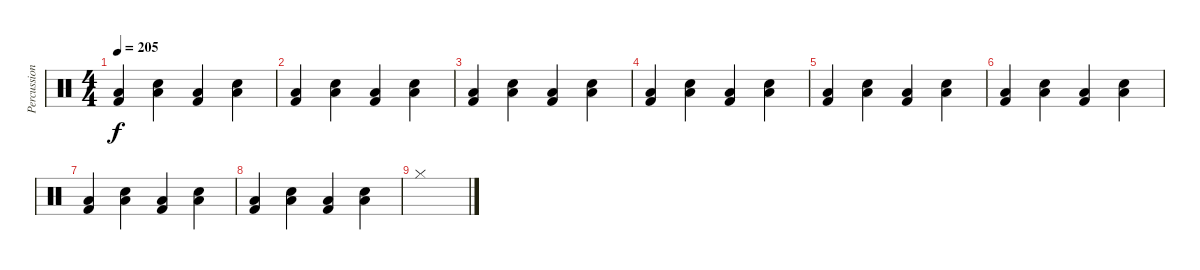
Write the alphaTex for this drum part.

\track ("Percussion" "Percussion") {instrument percussion}
\staff {score}
\articulation defaults
\ts (4 4)
\tempo 205
\clef neutral
\ks c
("Low Floor Tom (hit)" "Kick (hit) 2").4{dy f} ("Low Floor Tom (hit)" "Electric Snare (hit)").4 ("Low Floor Tom (hit)" "Kick (hit) 2").4 ("Low Floor Tom (hit)" "Electric Snare (hit)").4 |
("Low Floor Tom (hit)" "Kick (hit) 2").4 ("Low Floor Tom (hit)" "Electric Snare (hit)").4 ("Low Floor Tom (hit)" "Kick (hit) 2").4 ("Low Floor Tom (hit)" "Electric Snare (hit)").4 |
("Low Floor Tom (hit)" "Kick (hit) 2").4 ("Low Floor Tom (hit)" "Electric Snare (hit)").4 ("Low Floor Tom (hit)" "Kick (hit) 2").4 ("Low Floor Tom (hit)" "Electric Snare (hit)").4 |
("Low Floor Tom (hit)" "Kick (hit) 2").4 ("Low Floor Tom (hit)" "Electric Snare (hit)").4 ("Low Floor Tom (hit)" "Kick (hit) 2").4 ("Low Floor Tom (hit)" "Electric Snare (hit)").4 |
("Low Floor Tom (hit)" "Kick (hit) 2").4 ("Low Floor Tom (hit)" "Electric Snare (hit)").4 ("Low Floor Tom (hit)" "Kick (hit) 2").4 ("Low Floor Tom (hit)" "Electric Snare (hit)").4 |
("Low Floor Tom (hit)" "Kick (hit) 2").4 ("Low Floor Tom (hit)" "Electric Snare (hit)").4 ("Low Floor Tom (hit)" "Kick (hit) 2").4 ("Low Floor Tom (hit)" "Electric Snare (hit)").4 |
("Low Floor Tom (hit)" "Kick (hit) 2").4 ("Low Floor Tom (hit)" "Electric Snare (hit)").4 ("Low Floor Tom (hit)" "Kick (hit) 2").4 ("Low Floor Tom (hit)" "Electric Snare (hit)").4 |
("Low Floor Tom (hit)" "Kick (hit) 2").4 ("Low Floor Tom (hit)" "Electric Snare (hit)").4 ("Low Floor Tom (hit)" "Kick (hit) 2").4 ("Low Floor Tom (hit)" "Electric Snare (hit)").4 |
"Hi-Hat (closed)".1
